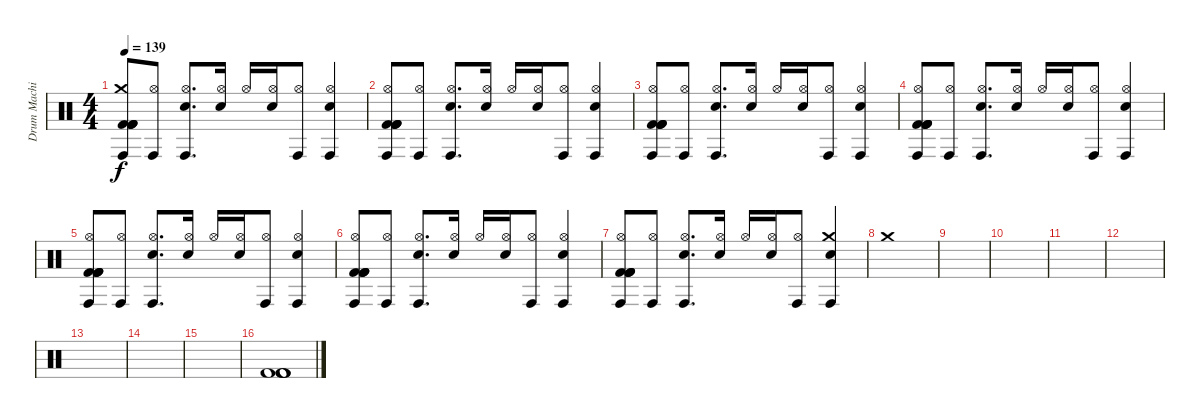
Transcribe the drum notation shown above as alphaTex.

\track ("Drum Machine" "Drum Machi") {instrument percussion}
\staff {score}
\articulation defaults
\ts (4 4)
\tempo 139
\clef neutral
\ks c
("Conga high (hit)" "Crash medium (hit)" "Kick (hit) 2" "Kick (hit) 2" "Kick (hit) 2" "Kick (hit) 2").8{dy f} ("Conga high (hit)" "Hi-Hat (open)").8 ("Conga high (hit)" "Hi-Hat (open)" "Electric Snare (hit)").8{d} ("Hi-Hat (open)" "Electric Snare (hit)").16 "Hi-Hat (open)".16 ("Hi-Hat (open)" "Electric Snare (hit)").16 ("Conga high (hit)" "Hi-Hat (open)").8 ("Conga high (hit)" "Hi-Hat (open)" "Electric Snare (hit)").4 |
("Conga high (hit)" "Hi-Hat (open)" "Kick (hit) 2" "Kick (hit) 2" "Kick (hit) 2" "Kick (hit) 2").8 ("Conga high (hit)" "Hi-Hat (open)").8 ("Conga high (hit)" "Hi-Hat (open)" "Electric Snare (hit)").8{d} ("Hi-Hat (open)" "Electric Snare (hit)").16 "Hi-Hat (open)".16 ("Hi-Hat (open)" "Electric Snare (hit)").16 ("Conga high (hit)" "Hi-Hat (open)").8 ("Conga high (hit)" "Hi-Hat (open)" "Electric Snare (hit)").4 |
("Conga high (hit)" "Hi-Hat (open)" "Kick (hit) 2" "Kick (hit) 2" "Kick (hit) 2" "Kick (hit) 2").8 ("Conga high (hit)" "Hi-Hat (open)").8 ("Conga high (hit)" "Hi-Hat (open)" "Electric Snare (hit)").8{d} ("Hi-Hat (open)" "Electric Snare (hit)").16 "Hi-Hat (open)".16 ("Hi-Hat (open)" "Electric Snare (hit)").16 ("Conga high (hit)" "Hi-Hat (open)").8 ("Conga high (hit)" "Hi-Hat (open)" "Electric Snare (hit)").4 |
("Conga high (hit)" "Hi-Hat (open)" "Kick (hit) 2" "Kick (hit) 2" "Kick (hit) 2" "Kick (hit) 2").8 ("Conga high (hit)" "Hi-Hat (open)").8 ("Conga high (hit)" "Hi-Hat (open)" "Electric Snare (hit)").8{d} ("Hi-Hat (open)" "Electric Snare (hit)").16 "Hi-Hat (open)".16 ("Hi-Hat (open)" "Electric Snare (hit)").16 ("Conga high (hit)" "Hi-Hat (open)").8 ("Conga high (hit)" "Hi-Hat (open)" "Electric Snare (hit)").4 |
("Conga high (hit)" "Hi-Hat (open)" "Kick (hit) 2" "Kick (hit) 2" "Kick (hit) 2" "Kick (hit) 2").8 ("Conga high (hit)" "Hi-Hat (open)").8 ("Conga high (hit)" "Hi-Hat (open)" "Electric Snare (hit)").8{d} ("Hi-Hat (open)" "Electric Snare (hit)").16 "Hi-Hat (open)".16 ("Hi-Hat (open)" "Electric Snare (hit)").16 ("Conga high (hit)" "Hi-Hat (open)").8 ("Conga high (hit)" "Hi-Hat (open)" "Electric Snare (hit)").4 |
("Conga high (hit)" "Hi-Hat (open)" "Kick (hit) 2" "Kick (hit) 2" "Kick (hit) 2" "Kick (hit) 2").8 ("Conga high (hit)" "Hi-Hat (open)").8 ("Conga high (hit)" "Hi-Hat (open)" "Electric Snare (hit)").8{d} ("Hi-Hat (open)" "Electric Snare (hit)").16 "Hi-Hat (open)".16 ("Hi-Hat (open)" "Electric Snare (hit)").16 ("Conga high (hit)" "Hi-Hat (open)").8 ("Conga high (hit)" "Hi-Hat (open)" "Electric Snare (hit)").4 |
("Conga high (hit)" "Hi-Hat (open)" "Kick (hit) 2" "Kick (hit) 2" "Kick (hit) 2" "Kick (hit) 2").8 ("Conga high (hit)" "Hi-Hat (open)").8 ("Conga high (hit)" "Hi-Hat (open)" "Electric Snare (hit)").8{d} ("Hi-Hat (open)" "Electric Snare (hit)").16 "Hi-Hat (open)".16 ("Hi-Hat (open)" "Electric Snare (hit)").16 ("Conga high (hit)" "Hi-Hat (open)").8 ("Conga high (hit)" "Crash medium (hit)" "Electric Snare (hit)").4 |
"Crash medium (hit)".1 |
|
|
|
|
|
|
|
("Kick (hit) 2" "Kick (hit) 2" "Kick (hit) 2" "Kick (hit) 2").1
